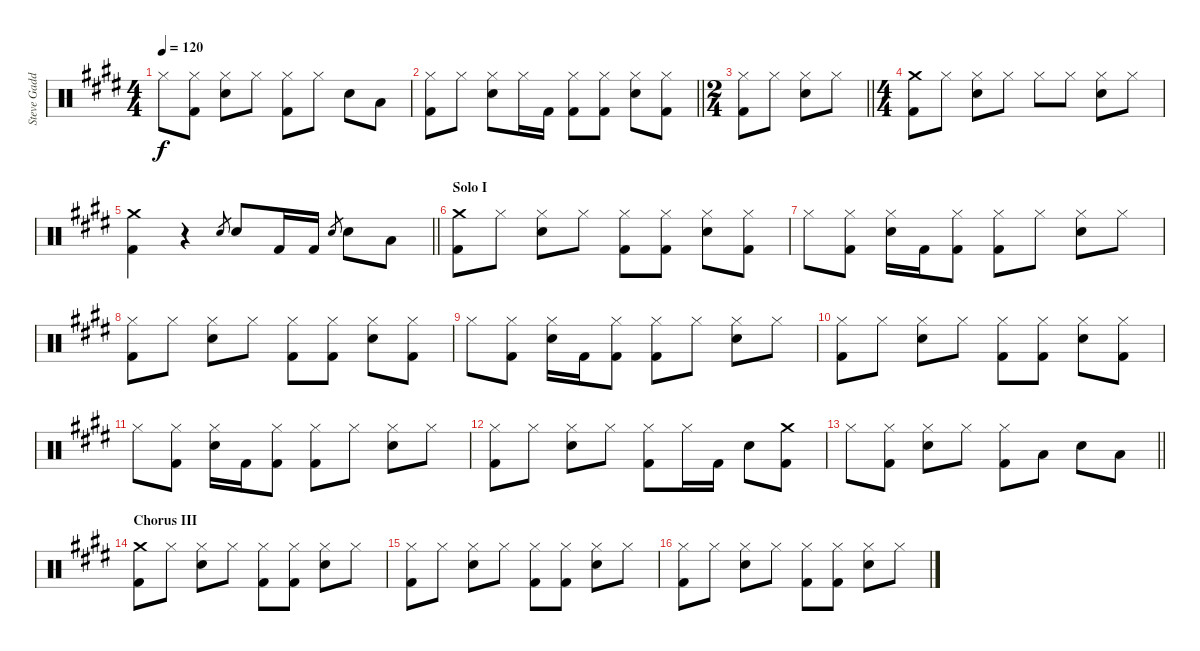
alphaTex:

\track ("Steve Gadd Drums" "Steve Gadd") {instrument percussion}
\staff {score}
\articulation defaults
\ts (4 4)
\tempo 120
\clef neutral
\ks e "Hi-Hat (closed)".8{dy f}
("Hi-Hat (closed)" "Kick (hit) 2").8 ("Hi-Hat (closed)" "Snare (hit) 2").8 "Hi-Hat (closed)".8 ("Hi-Hat (closed)" "Kick (hit) 2").8 "Hi-Hat (closed)".8 "Snare (hit) 2".8 "Low Tom (hit)".8 |
\barLineRight lightlight
("Hi-Hat (closed)" "Kick (hit) 2").8 "Hi-Hat (closed)".8 ("Hi-Hat (closed)" "Snare (hit) 2").8 "Hi-Hat (closed)".16 "Kick (hit) 2".16 ("Hi-Hat (closed)" "Kick (hit) 2").8 ("Hi-Hat (closed)" "Kick (hit) 2").8 ("Hi-Hat (closed)" "Snare (hit) 2").8 ("Hi-Hat (closed)" "Kick (hit) 2").8 |
\ts (2 4)
\barLineRight lightlight
("Hi-Hat (closed)" "Kick (hit) 2").8 "Hi-Hat (closed)".8 ("Hi-Hat (closed)" "Snare (hit) 2").8 "Hi-Hat (closed)".8 |
\ts (4 4)
("Crash medium (hit)" "Kick (hit) 2").8 "Hi-Hat (closed)".8 ("Hi-Hat (closed)" "Snare (hit) 2").8 "Hi-Hat (closed)".8 "Hi-Hat (closed)".8 "Hi-Hat (closed)".8 ("Hi-Hat (closed)" "Snare (hit) 2").8 "Hi-Hat (closed)".8 |
\barLineRight lightlight
("Crash medium (hit)" "Kick (hit) 2").4 r.4 "Snare (hit) 2".8{gr} "Snare (hit) 2".8 "Kick (hit) 2".16 "Kick (hit) 2".16 "Snare (hit) 2".8{gr} "Snare (hit) 2".8 "Low Tom (hit)".8 |
\section ("" "Solo I")
("Crash medium (hit)" "Kick (hit) 2").8 "Hi-Hat (closed)".8 ("Hi-Hat (closed)" "Snare (hit) 2").8 "Hi-Hat (closed)".8 ("Hi-Hat (closed)" "Kick (hit) 2").8 ("Hi-Hat (closed)" "Kick (hit) 2").8 ("Hi-Hat (closed)" "Snare (hit) 2").8 ("Hi-Hat (closed)" "Kick (hit) 2").8 |
"Hi-Hat (closed)".8 ("Hi-Hat (closed)" "Kick (hit) 2").8 ("Hi-Hat (closed)" "Snare (hit) 2").16 "Kick (hit) 2".16 ("Hi-Hat (closed)" "Kick (hit) 2").8 ("Hi-Hat (closed)" "Kick (hit) 2").8 "Hi-Hat (closed)".8 ("Hi-Hat (closed)" "Snare (hit) 2").8 "Hi-Hat (closed)".8 |
("Hi-Hat (closed)" "Kick (hit) 2").8 "Hi-Hat (closed)".8 ("Hi-Hat (closed)" "Snare (hit) 2").8 "Hi-Hat (closed)".8 ("Hi-Hat (closed)" "Kick (hit) 2").8 ("Hi-Hat (closed)" "Kick (hit) 2").8 ("Hi-Hat (closed)" "Snare (hit) 2").8 ("Hi-Hat (closed)" "Kick (hit) 2").8 |
"Hi-Hat (closed)".8 ("Hi-Hat (closed)" "Kick (hit) 2").8 ("Hi-Hat (closed)" "Snare (hit) 2").16 "Kick (hit) 2".16 ("Hi-Hat (closed)" "Kick (hit) 2").8 ("Hi-Hat (closed)" "Kick (hit) 2").8 "Hi-Hat (closed)".8 ("Hi-Hat (closed)" "Snare (hit) 2").8 "Hi-Hat (closed)".8 |
("Hi-Hat (closed)" "Kick (hit) 2").8 "Hi-Hat (closed)".8 ("Hi-Hat (closed)" "Snare (hit) 2").8 "Hi-Hat (closed)".8 ("Hi-Hat (closed)" "Kick (hit) 2").8 ("Hi-Hat (closed)" "Kick (hit) 2").8 ("Hi-Hat (closed)" "Snare (hit) 2").8 ("Hi-Hat (closed)" "Kick (hit) 2").8 |
"Hi-Hat (closed)".8 ("Hi-Hat (closed)" "Kick (hit) 2").8 ("Hi-Hat (closed)" "Snare (hit) 2").16 "Kick (hit) 2".16 ("Hi-Hat (closed)" "Kick (hit) 2").8 ("Hi-Hat (closed)" "Kick (hit) 2").8 "Hi-Hat (closed)".8 ("Hi-Hat (closed)" "Snare (hit) 2").8 "Hi-Hat (closed)".8 |
("Hi-Hat (closed)" "Kick (hit) 2").8 "Hi-Hat (closed)".8 ("Hi-Hat (closed)" "Snare (hit) 2").8 "Hi-Hat (closed)".8 ("Hi-Hat (closed)" "Kick (hit) 2").8 "Hi-Hat (closed)".16 "Kick (hit) 2".16 "Snare (hit) 2".8 ("Crash medium (hit)" "Kick (hit) 2").8 |
\barLineRight lightlight "Hi-Hat (closed)".8
("Hi-Hat (closed)" "Kick (hit) 2").8 ("Hi-Hat (closed)" "Snare (hit) 2").8 "Hi-Hat (closed)".8 ("Hi-Hat (closed)" "Kick (hit) 2").8 "Low Tom (hit)".8 "Snare (hit) 2".8 "Low Tom (hit)".8 |
\section ("" "Chorus III")
("Crash medium (hit)" "Kick (hit) 2").8 "Hi-Hat (closed)".8 ("Hi-Hat (closed)" "Snare (hit) 2").8 "Hi-Hat (closed)".8 ("Hi-Hat (closed)" "Kick (hit) 2").8 ("Hi-Hat (closed)" "Kick (hit) 2").8 ("Hi-Hat (closed)" "Snare (hit) 2").8 "Hi-Hat (closed)".8 |
("Hi-Hat (closed)" "Kick (hit) 2").8 "Hi-Hat (closed)".8 ("Hi-Hat (closed)" "Snare (hit) 2").8 "Hi-Hat (closed)".8 ("Hi-Hat (closed)" "Kick (hit) 2").8 ("Hi-Hat (closed)" "Kick (hit) 2").8 ("Hi-Hat (closed)" "Snare (hit) 2").8 "Hi-Hat (closed)".8 |
("Hi-Hat (closed)" "Kick (hit) 2").8 "Hi-Hat (closed)".8 ("Hi-Hat (closed)" "Snare (hit) 2").8 "Hi-Hat (closed)".8 ("Hi-Hat (closed)" "Kick (hit) 2").8 ("Hi-Hat (closed)" "Kick (hit) 2").8 ("Hi-Hat (closed)" "Snare (hit) 2").8 "Hi-Hat (closed)".8
